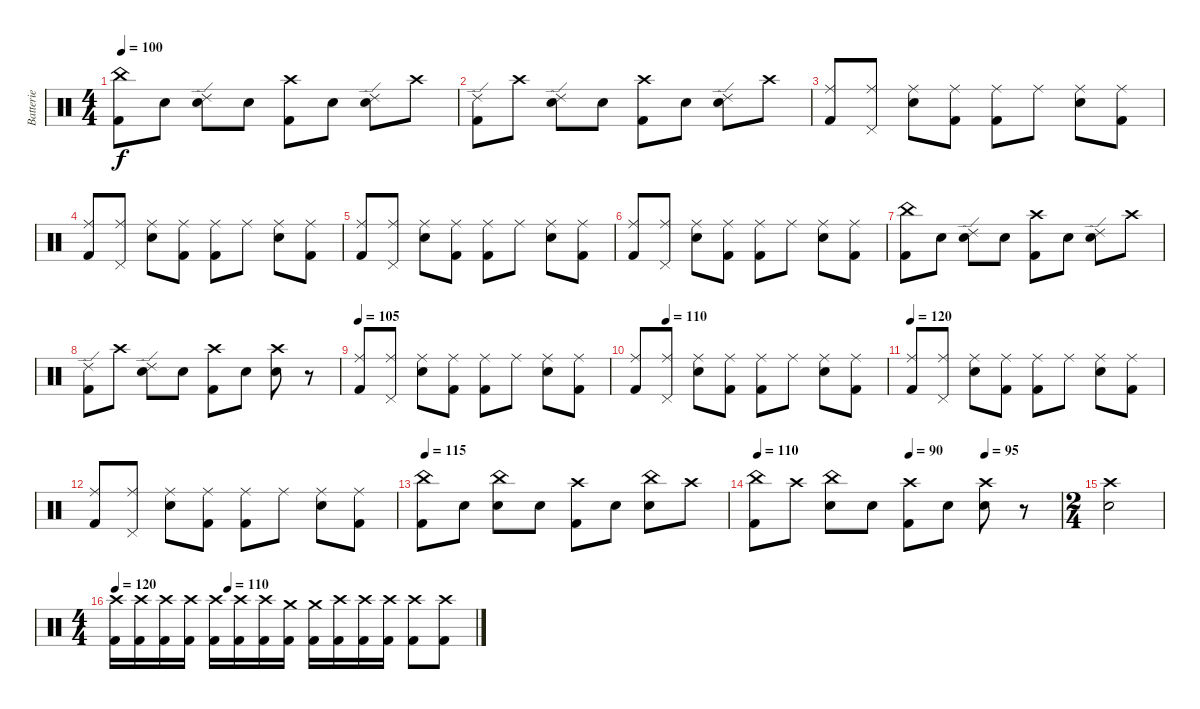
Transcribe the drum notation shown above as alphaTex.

\track ("Batterie" "Batterie") {instrument percussion}
\staff {score}
\articulation defaults
\ts (4 4)
\tempo 100
\clef neutral
\ks c
("China (hit)" "Kick (hit) 2").8{dy f} "Snare (hit)".8 ("Ride (edge) 2" "Electric Snare (hit)").8 "Snare (hit)".8 ("Crash high (hit)" "Kick (hit) 2").8 "Snare (hit)".8 ("Ride (edge) 2" "Electric Snare (hit)").8 "Crash high (hit)".8 |
("Ride (edge) 2" "Kick (hit) 2").8 "Crash high (hit)".8 ("Ride (edge) 2" "Electric Snare (hit)").8 "Snare (hit)".8 ("Crash high (hit)" "Kick (hit) 2").8 "Snare (hit)".8 ("Ride (edge) 2" "Electric Snare (hit)").8 "Crash high (hit)".8 |
("Ride (middle)" "Kick (hit) 2").8 ("Ride (middle)" "Pedal Hi-Hat (hit)").8 ("Ride (middle)" "Electric Snare (hit)").8 ("Ride (middle)" "Kick (hit) 2").8 ("Ride (middle)" "Kick (hit) 2").8 "Ride (middle)".8 ("Ride (middle)" "Electric Snare (hit)").8 ("Ride (middle)" "Kick (hit) 2").8 |
("Ride (middle)" "Kick (hit) 2").8 ("Ride (middle)" "Pedal Hi-Hat (hit)").8 ("Ride (middle)" "Electric Snare (hit)").8 ("Ride (middle)" "Kick (hit) 2").8 ("Ride (middle)" "Kick (hit) 2").8 "Ride (middle)".8 ("Ride (middle)" "Electric Snare (hit)").8 ("Ride (middle)" "Kick (hit) 2").8 |
("Ride (middle)" "Kick (hit) 2").8 ("Ride (middle)" "Pedal Hi-Hat (hit)").8 ("Ride (middle)" "Electric Snare (hit)").8 ("Ride (middle)" "Kick (hit) 2").8 ("Ride (middle)" "Kick (hit) 2").8 "Ride (middle)".8 ("Ride (middle)" "Electric Snare (hit)").8 ("Ride (middle)" "Kick (hit) 2").8 |
("Ride (middle)" "Kick (hit) 2").8 ("Ride (middle)" "Pedal Hi-Hat (hit)").8 ("Ride (middle)" "Electric Snare (hit)").8 ("Ride (middle)" "Kick (hit) 2").8 ("Ride (middle)" "Kick (hit) 2").8 "Ride (middle)".8 ("Ride (middle)" "Electric Snare (hit)").8 ("Ride (middle)" "Kick (hit) 2").8 |
("China (hit)" "Kick (hit) 2").8 "Snare (hit)".8 ("Ride (edge) 2" "Electric Snare (hit)").8 "Snare (hit)".8 ("Crash high (hit)" "Kick (hit) 2").8 "Snare (hit)".8 ("Ride (edge) 2" "Electric Snare (hit)").8 "Crash high (hit)".8 |
("Ride (edge) 2" "Kick (hit) 2").8 "Crash high (hit)".8 ("Ride (edge) 2" "Electric Snare (hit)").8 "Snare (hit)".8 ("Crash high (hit)" "Kick (hit) 2").8 "Snare (hit)".8 ("Crash high (hit)" "Electric Snare (hit)").8 r.8 |
\tempo 105
("Ride (middle)" "Kick (hit) 2").8 ("Ride (middle)" "Pedal Hi-Hat (hit)").8 ("Ride (middle)" "Electric Snare (hit)").8 ("Ride (middle)" "Kick (hit) 2").8 ("Ride (middle)" "Kick (hit) 2").8 "Ride (middle)".8 ("Ride (middle)" "Electric Snare (hit)").8 ("Ride (middle)" "Kick (hit) 2").8 |
\tempo (110 0.125)
("Ride (middle)" "Kick (hit) 2").8 ("Ride (middle)" "Pedal Hi-Hat (hit)").8 ("Ride (middle)" "Electric Snare (hit)").8 ("Ride (middle)" "Kick (hit) 2").8 ("Ride (middle)" "Kick (hit) 2").8 "Ride (middle)".8 ("Ride (middle)" "Electric Snare (hit)").8 ("Ride (middle)" "Kick (hit) 2").8 |
\tempo 120
("Ride (middle)" "Kick (hit) 2").8 ("Ride (middle)" "Pedal Hi-Hat (hit)").8 ("Ride (middle)" "Electric Snare (hit)").8 ("Ride (middle)" "Kick (hit) 2").8 ("Ride (middle)" "Kick (hit) 2").8 "Ride (middle)".8 ("Ride (middle)" "Electric Snare (hit)").8 ("Ride (middle)" "Kick (hit) 2").8 |
("Ride (middle)" "Kick (hit) 2").8 ("Ride (middle)" "Pedal Hi-Hat (hit)").8 ("Ride (middle)" "Electric Snare (hit)").8 ("Ride (middle)" "Kick (hit) 2").8 ("Ride (middle)" "Kick (hit) 2").8 "Ride (middle)".8 ("Ride (middle)" "Electric Snare (hit)").8 ("Ride (middle)" "Kick (hit) 2").8 |
\tempo 115
("China (hit)" "Kick (hit) 2").8 "Snare (hit)".8 ("China (hit)" "Electric Snare (hit)").8 "Snare (hit)".8 ("Crash high (hit)" "Kick (hit) 2").8 "Snare (hit)".8 ("China (hit)" "Electric Snare (hit)").8 "Crash high (hit)".8 |
\tempo 110
\tempo (90 0.5)
\tempo (95 0.75)
("China (hit)" "Kick (hit) 2").8 "Crash high (hit)".8 ("China (hit)" "Electric Snare (hit)").8 "Snare (hit)".8 ("Crash high (hit)" "Kick (hit) 2").8 "Snare (hit)".8 ("Crash high (hit)" "Electric Snare (hit)").8 r.8 |
\ts (2 4)
("Crash high (hit)" "Electric Snare (hit)").2 |
\ts (4 4)
\tempo 120
\tempo (110 0.3125)
("Crash high (hit)" "Kick (hit) 2").16 ("Crash high (hit)" "Kick (hit) 2").16 ("Crash high (hit)" "Kick (hit) 2").16 ("Crash high (hit)" "Kick (hit) 2").16 ("Crash high (hit)" "Kick (hit) 2").16 ("Crash high (hit)" "Kick (hit) 2").16 ("Crash high (hit)" "Kick (hit) 2").16 ("Crash medium (hit)" "Kick (hit) 2").16 ("Crash medium (hit)" "Kick (hit) 2").16 ("Crash high (hit)" "Kick (hit) 2").16 ("Crash high (hit)" "Kick (hit) 2").16 ("Crash high (hit)" "Kick (hit) 2").16 ("Crash high (hit)" "Kick (hit) 2").8 ("Crash high (hit)" "Kick (hit) 2").8
